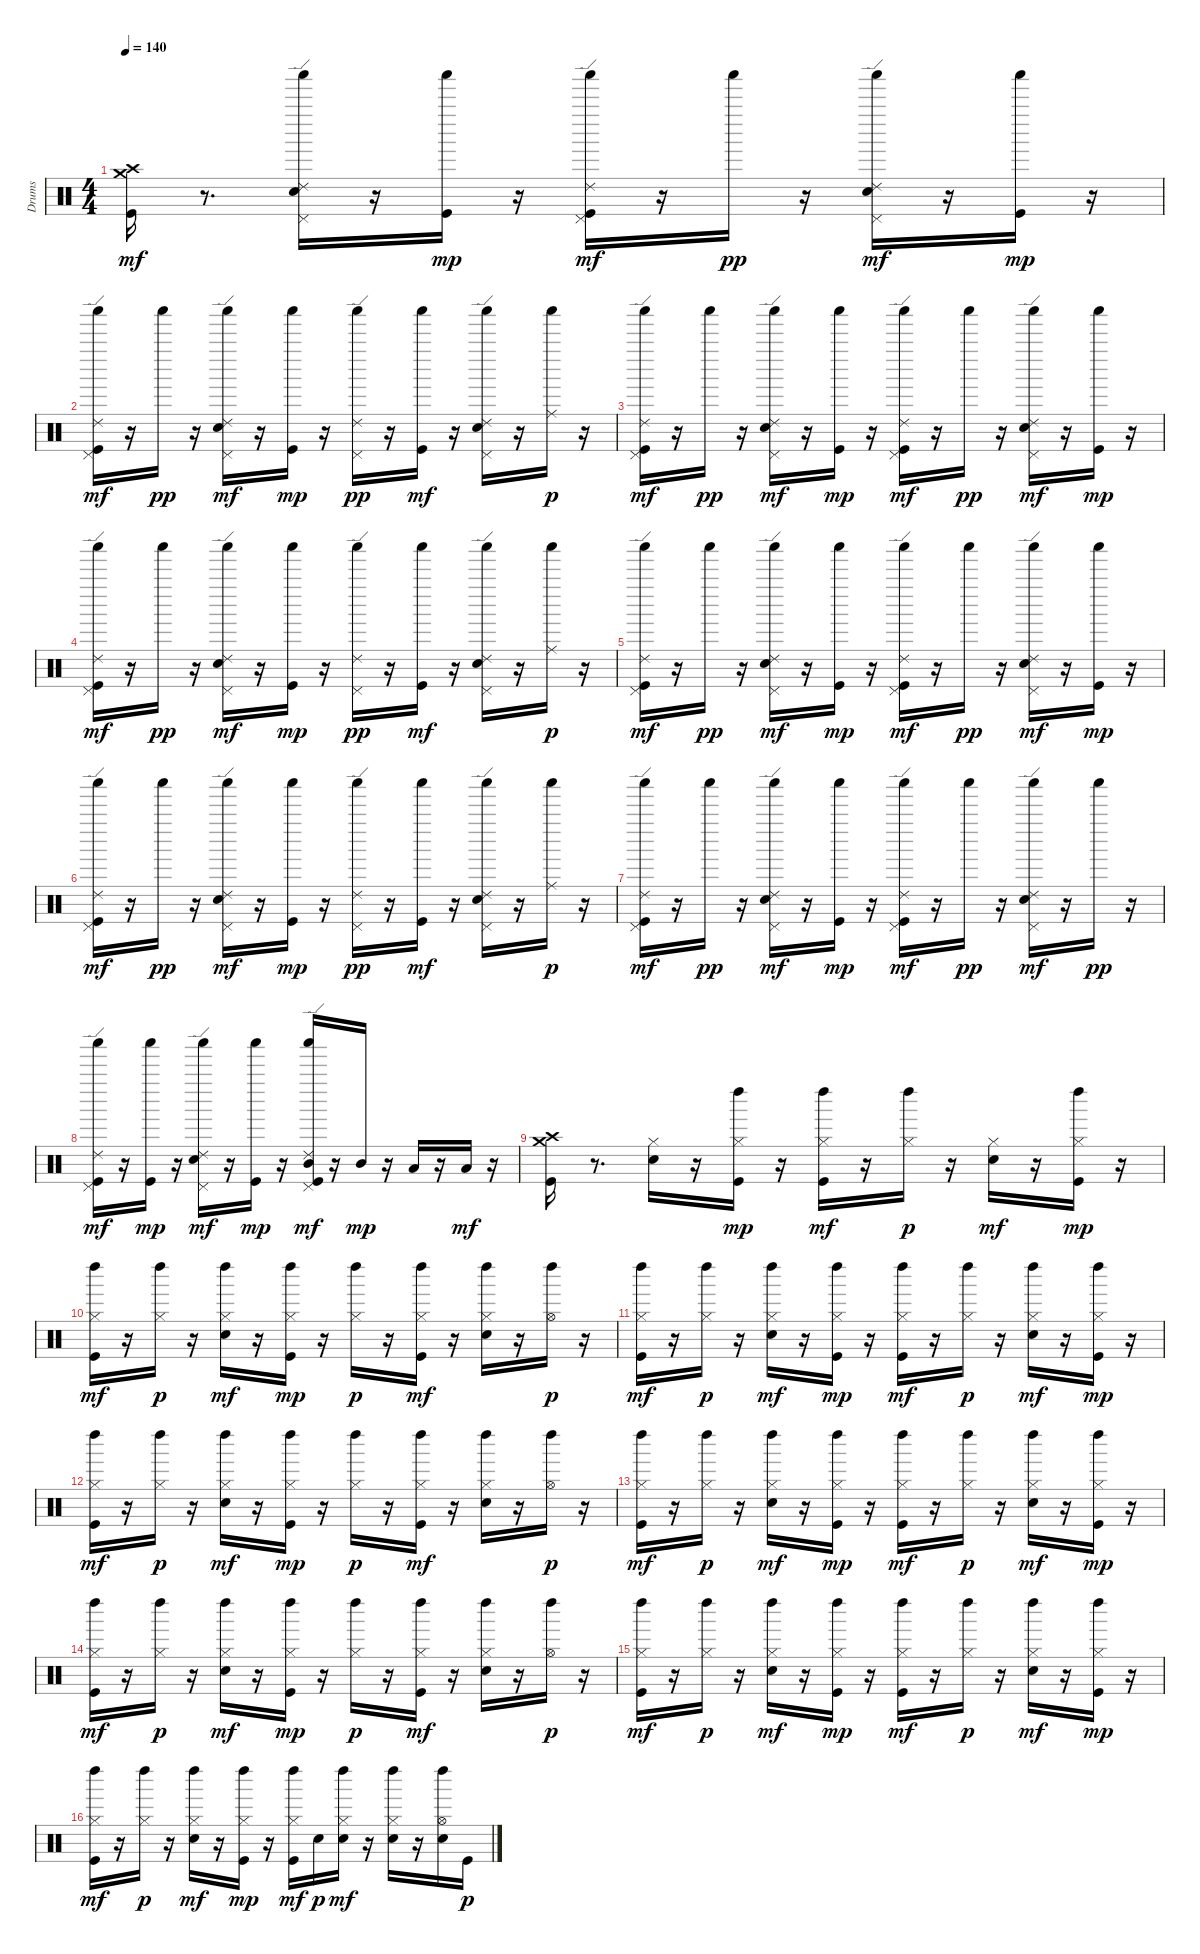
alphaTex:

\track ("Drums" "Drums") {instrument percussion}
\staff {score}
\articulation defaults
\ts (4 4)
\tempo 140
\clef neutral
\ks c
("Crash medium (hit)" "Crash high (hit)" "Kick (hit)").16{dy mf} r.8{d} ("Pedal Hi-Hat (hit)" "Ride (edge) 2" "Shaker (hit)" "Snare (hit) 2").16 r.16 ("Shaker (hit)" "Kick (hit)").16{dy mp} r.16 ("Pedal Hi-Hat (hit)" "Ride (edge) 2" "Shaker (hit)" "Kick (hit)").16{dy mf} r.16 "Shaker (hit)".16{dy pp} r.16 ("Pedal Hi-Hat (hit)" "Ride (edge) 2" "Shaker (hit)" "Snare (hit) 2").16{dy mf} r.16 ("Shaker (hit)" "Kick (hit)").16{dy mp} r.16 |
("Pedal Hi-Hat (hit)" "Ride (edge) 2" "Shaker (hit)" "Kick (hit)").16{dy mf} r.16 "Shaker (hit)".16{dy pp} r.16 ("Pedal Hi-Hat (hit)" "Ride (edge) 2" "Shaker (hit)" "Snare (hit) 2").16{dy mf} r.16 ("Shaker (hit)" "Kick (hit)").16{dy mp} r.16 ("Pedal Hi-Hat (hit)" "Ride (edge) 2" "Shaker (hit)").16{dy pp} r.16 ("Shaker (hit)" "Kick (hit)").16{dy mf} r.16 ("Pedal Hi-Hat (hit)" "Ride (edge) 2" "Shaker (hit)" "Snare (hit) 2").16 r.16 ("Shaker (hit)" "Ride (middle)").16{dy p} r.16 |
("Pedal Hi-Hat (hit)" "Ride (edge) 2" "Shaker (hit)" "Kick (hit)").16{dy mf} r.16 "Shaker (hit)".16{dy pp} r.16 ("Pedal Hi-Hat (hit)" "Ride (edge) 2" "Shaker (hit)" "Snare (hit) 2").16{dy mf} r.16 ("Shaker (hit)" "Kick (hit)").16{dy mp} r.16 ("Pedal Hi-Hat (hit)" "Ride (edge) 2" "Shaker (hit)" "Kick (hit)").16{dy mf} r.16 "Shaker (hit)".16{dy pp} r.16 ("Pedal Hi-Hat (hit)" "Ride (edge) 2" "Shaker (hit)" "Snare (hit) 2").16{dy mf} r.16 ("Shaker (hit)" "Kick (hit)").16{dy mp} r.16 |
("Pedal Hi-Hat (hit)" "Ride (edge) 2" "Shaker (hit)" "Kick (hit)").16{dy mf} r.16 "Shaker (hit)".16{dy pp} r.16 ("Pedal Hi-Hat (hit)" "Ride (edge) 2" "Shaker (hit)" "Snare (hit) 2").16{dy mf} r.16 ("Shaker (hit)" "Kick (hit)").16{dy mp} r.16 ("Pedal Hi-Hat (hit)" "Ride (edge) 2" "Shaker (hit)").16{dy pp} r.16 ("Shaker (hit)" "Kick (hit)").16{dy mf} r.16 ("Pedal Hi-Hat (hit)" "Ride (edge) 2" "Shaker (hit)" "Snare (hit) 2").16 r.16 ("Shaker (hit)" "Ride (middle)").16{dy p} r.16 |
("Pedal Hi-Hat (hit)" "Ride (edge) 2" "Shaker (hit)" "Kick (hit)").16{dy mf} r.16 "Shaker (hit)".16{dy pp} r.16 ("Pedal Hi-Hat (hit)" "Ride (edge) 2" "Shaker (hit)" "Snare (hit) 2").16{dy mf} r.16 ("Shaker (hit)" "Kick (hit)").16{dy mp} r.16 ("Pedal Hi-Hat (hit)" "Ride (edge) 2" "Shaker (hit)" "Kick (hit)").16{dy mf} r.16 "Shaker (hit)".16{dy pp} r.16 ("Pedal Hi-Hat (hit)" "Ride (edge) 2" "Shaker (hit)" "Snare (hit) 2").16{dy mf} r.16 ("Shaker (hit)" "Kick (hit)").16{dy mp} r.16 |
("Pedal Hi-Hat (hit)" "Ride (edge) 2" "Shaker (hit)" "Kick (hit)").16{dy mf} r.16 "Shaker (hit)".16{dy pp} r.16 ("Pedal Hi-Hat (hit)" "Ride (edge) 2" "Shaker (hit)" "Snare (hit) 2").16{dy mf} r.16 ("Shaker (hit)" "Kick (hit)").16{dy mp} r.16 ("Pedal Hi-Hat (hit)" "Ride (edge) 2" "Shaker (hit)").16{dy pp} r.16 ("Shaker (hit)" "Kick (hit)").16{dy mf} r.16 ("Pedal Hi-Hat (hit)" "Ride (edge) 2" "Shaker (hit)" "Snare (hit) 2").16 r.16 ("Shaker (hit)" "Ride (middle)").16{dy p} r.16 |
("Shaker (hit)" "Ride (edge) 2" "Pedal Hi-Hat (hit)" "Kick (hit)").16{dy mf} r.16 "Shaker (hit)".16{dy pp} r.16 ("Shaker (hit)" "Ride (edge) 2" "Pedal Hi-Hat (hit)" "Snare (hit) 2").16{dy mf} r.16 ("Shaker (hit)" "Kick (hit)").16{dy mp} r.16 ("Shaker (hit)" "Ride (edge) 2" "Pedal Hi-Hat (hit)" "Kick (hit)").16{dy mf} r.16 "Shaker (hit)".16{dy pp} r.16 ("Shaker (hit)" "Ride (edge) 2" "Pedal Hi-Hat (hit)" "Snare (hit) 2").16{dy mf} r.16 "Shaker (hit)".16{dy pp} r.16 |
("Shaker (hit)" "Ride (edge) 2" "Pedal Hi-Hat (hit)" "Kick (hit)").16{dy mf} r.16 ("Shaker (hit)" "Kick (hit)").16{dy mp} r.16 ("Shaker (hit)" "Ride (edge) 2" "Pedal Hi-Hat (hit)" "Snare (hit) 2").16{dy mf} r.16 ("Shaker (hit)" "Kick (hit)").16{dy mp} r.16 ("Shaker (hit)" "Ride (edge) 2" "Mid Tom (hit)" "Pedal Hi-Hat (hit)" "Kick (hit)").16{dy mf} r.16 "Mid Tom (hit)".16{dy mp} r.16 "Low Tom (hit)".16 r.16 "Low Floor Tom (hit)".16{dy mf} r.16 |
("Crash medium (hit)" "Crash high (hit)" "Kick (hit)").16 r.8{d} ("Hi-Hat (closed)" "Snare (hit) 2").16 r.16 ("Hi-Hat (closed)" "Left Maraca (hit)" "Kick (hit)").16{dy mp} r.16 ("Hi-Hat (closed)" "Left Maraca (hit)" "Kick (hit)").16{dy mf} r.16 ("Hi-Hat (closed)" "Left Maraca (hit)").16{dy p} r.16 ("Hi-Hat (closed)" "Snare (hit) 2").16{dy mf} r.16 ("Hi-Hat (closed)" "Left Maraca (hit)" "Kick (hit)").16{dy mp} r.16 |
("Hi-Hat (closed)" "Left Maraca (hit)" "Kick (hit)").16{dy mf} r.16 ("Hi-Hat (closed)" "Left Maraca (hit)").16{dy p} r.16 ("Hi-Hat (closed)" "Left Maraca (hit)" "Snare (hit) 2").16{dy mf} r.16 ("Hi-Hat (closed)" "Left Maraca (hit)" "Kick (hit)").16{dy mp} r.16 ("Hi-Hat (closed)" "Left Maraca (hit)").16{dy p} r.16 ("Hi-Hat (closed)" "Left Maraca (hit)" "Kick (hit)").16{dy mf} r.16 ("Hi-Hat (closed)" "Left Maraca (hit)" "Snare (hit) 2").16 r.16 ("Hi-Hat (open)" "Left Maraca (hit)").16{dy p} r.16 |
("Hi-Hat (closed)" "Left Maraca (hit)" "Kick (hit)").16{dy mf} r.16 ("Hi-Hat (closed)" "Left Maraca (hit)").16{dy p} r.16 ("Hi-Hat (closed)" "Left Maraca (hit)" "Snare (hit) 2").16{dy mf} r.16 ("Hi-Hat (closed)" "Left Maraca (hit)" "Kick (hit)").16{dy mp} r.16 ("Hi-Hat (closed)" "Left Maraca (hit)" "Kick (hit)").16{dy mf} r.16 ("Hi-Hat (closed)" "Left Maraca (hit)").16{dy p} r.16 ("Hi-Hat (closed)" "Left Maraca (hit)" "Snare (hit) 2").16{dy mf} r.16 ("Hi-Hat (closed)" "Left Maraca (hit)" "Kick (hit)").16{dy mp} r.16 |
("Hi-Hat (closed)" "Left Maraca (hit)" "Kick (hit)").16{dy mf} r.16 ("Hi-Hat (closed)" "Left Maraca (hit)").16{dy p} r.16 ("Hi-Hat (closed)" "Left Maraca (hit)" "Snare (hit) 2").16{dy mf} r.16 ("Hi-Hat (closed)" "Left Maraca (hit)" "Kick (hit)").16{dy mp} r.16 ("Hi-Hat (closed)" "Left Maraca (hit)").16{dy p} r.16 ("Hi-Hat (closed)" "Left Maraca (hit)" "Kick (hit)").16{dy mf} r.16 ("Hi-Hat (closed)" "Left Maraca (hit)" "Snare (hit) 2").16 r.16 ("Hi-Hat (open)" "Left Maraca (hit)").16{dy p} r.16 |
("Hi-Hat (closed)" "Left Maraca (hit)" "Kick (hit)").16{dy mf} r.16 ("Hi-Hat (closed)" "Left Maraca (hit)").16{dy p} r.16 ("Hi-Hat (closed)" "Left Maraca (hit)" "Snare (hit) 2").16{dy mf} r.16 ("Hi-Hat (closed)" "Left Maraca (hit)" "Kick (hit)").16{dy mp} r.16 ("Hi-Hat (closed)" "Left Maraca (hit)" "Kick (hit)").16{dy mf} r.16 ("Hi-Hat (closed)" "Left Maraca (hit)").16{dy p} r.16 ("Hi-Hat (closed)" "Left Maraca (hit)" "Snare (hit) 2").16{dy mf} r.16 ("Hi-Hat (closed)" "Left Maraca (hit)" "Kick (hit)").16{dy mp} r.16 |
("Hi-Hat (closed)" "Left Maraca (hit)" "Kick (hit)").16{dy mf} r.16 ("Hi-Hat (closed)" "Left Maraca (hit)").16{dy p} r.16 ("Hi-Hat (closed)" "Left Maraca (hit)" "Snare (hit) 2").16{dy mf} r.16 ("Hi-Hat (closed)" "Left Maraca (hit)" "Kick (hit)").16{dy mp} r.16 ("Hi-Hat (closed)" "Left Maraca (hit)").16{dy p} r.16 ("Hi-Hat (closed)" "Left Maraca (hit)" "Kick (hit)").16{dy mf} r.16 ("Hi-Hat (closed)" "Left Maraca (hit)" "Snare (hit) 2").16 r.16 ("Hi-Hat (open)" "Left Maraca (hit)").16{dy p} r.16 |
("Hi-Hat (closed)" "Left Maraca (hit)" "Kick (hit)").16{dy mf} r.16 ("Hi-Hat (closed)" "Left Maraca (hit)").16{dy p} r.16 ("Hi-Hat (closed)" "Left Maraca (hit)" "Snare (hit) 2").16{dy mf} r.16 ("Hi-Hat (closed)" "Left Maraca (hit)" "Kick (hit)").16{dy mp} r.16 ("Hi-Hat (closed)" "Left Maraca (hit)" "Kick (hit)").16{dy mf} r.16 ("Hi-Hat (closed)" "Left Maraca (hit)").16{dy p} r.16 ("Hi-Hat (closed)" "Left Maraca (hit)" "Snare (hit) 2").16{dy mf} r.16 ("Hi-Hat (closed)" "Left Maraca (hit)" "Kick (hit)").16{dy mp} r.16 |
("Hi-Hat (closed)" "Left Maraca (hit)" "Kick (hit)").16{dy mf} r.16 ("Hi-Hat (closed)" "Left Maraca (hit)").16{dy p} r.16 ("Hi-Hat (closed)" "Left Maraca (hit)" "Snare (hit) 2").16{dy mf} r.16 ("Hi-Hat (closed)" "Left Maraca (hit)" "Kick (hit)").16{dy mp} r.16 ("Hi-Hat (closed)" "Left Maraca (hit)" "Kick (hit)").16{dy mf} "Snare (hit) 2".16{dy p} ("Hi-Hat (closed)" "Left Maraca (hit)" "Snare (hit) 2").16{dy mf} r.16 ("Hi-Hat (closed)" "Left Maraca (hit)" "Snare (hit) 2").16 r.16 ("Hi-Hat (open)" "Left Maraca (hit)" "Snare (hit) 2").16 "Kick (hit)".16{dy p}
